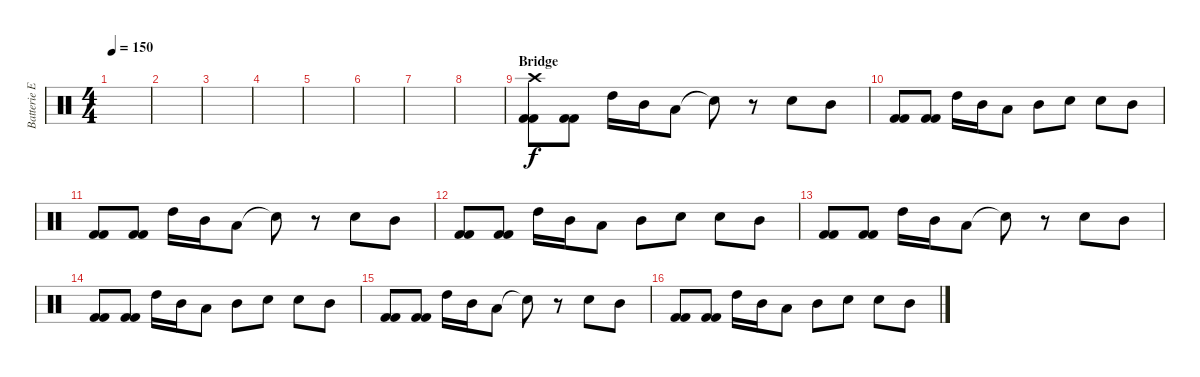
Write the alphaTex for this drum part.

\track ("Batterie Electronique" "Batterie E") {instrument percussion}
\staff {score}
\articulation defaults
\ts (4 4)
\tempo 150
\clef neutral
\ks c
|
|
|
|
|
|
|
|
\section ("" "Bridge")
("Crash high (hit)" "Kick (hit) 2" "Kick (hit) 2").8{volume 10} ("Kick (hit) 2" "Kick (hit) 2").8 "High Tom (hit)".16 "Mid Tom (hit)".16 "Low Tom (hit)".8 "Snare (hit)"{t}.8 r.8 "Snare (hit) 2".8 "Mid Tom (hit)".8 |
("Kick (hit) 2" "Kick (hit) 2").8 ("Kick (hit) 2" "Kick (hit) 2").8 "High Tom (hit)".16 "Mid Tom (hit)".16 "Low Tom (hit)".8 "Mid Tom (hit)".8 "Snare (hit) 2".8 "Snare (hit) 2".8 "Mid Tom (hit)".8 |
("Kick (hit) 2" "Kick (hit) 2").8 ("Kick (hit) 2" "Kick (hit) 2").8 "High Tom (hit)".16 "Mid Tom (hit)".16 "Low Tom (hit)".8 "Snare (hit)"{t}.8 r.8 "Snare (hit) 2".8 "Mid Tom (hit)".8 |
("Kick (hit) 2" "Kick (hit) 2").8 ("Kick (hit) 2" "Kick (hit) 2").8 "High Tom (hit)".16 "Mid Tom (hit)".16 "Low Tom (hit)".8 "Mid Tom (hit)".8 "Snare (hit) 2".8 "Snare (hit) 2".8 "Mid Tom (hit)".8 |
("Kick (hit) 2" "Kick (hit) 2").8 ("Kick (hit) 2" "Kick (hit) 2").8 "High Tom (hit)".16 "Mid Tom (hit)".16 "Low Tom (hit)".8 "Snare (hit)"{t}.8 r.8 "Snare (hit) 2".8 "Mid Tom (hit)".8 |
("Kick (hit) 2" "Kick (hit) 2").8 ("Kick (hit) 2" "Kick (hit) 2").8 "High Tom (hit)".16 "Mid Tom (hit)".16 "Low Tom (hit)".8 "Mid Tom (hit)".8 "Snare (hit) 2".8 "Snare (hit) 2".8 "Mid Tom (hit)".8 |
("Kick (hit) 2" "Kick (hit) 2").8 ("Kick (hit) 2" "Kick (hit) 2").8 "High Tom (hit)".16 "Mid Tom (hit)".16 "Low Tom (hit)".8 "Snare (hit)"{t}.8 r.8 "Snare (hit) 2".8 "Mid Tom (hit)".8 |
("Kick (hit) 2" "Kick (hit) 2").8 ("Kick (hit) 2" "Kick (hit) 2").8 "High Tom (hit)".16 "Mid Tom (hit)".16 "Low Tom (hit)".8 "Mid Tom (hit)".8 "Snare (hit) 2".8 "Snare (hit) 2".8 "Mid Tom (hit)".8
